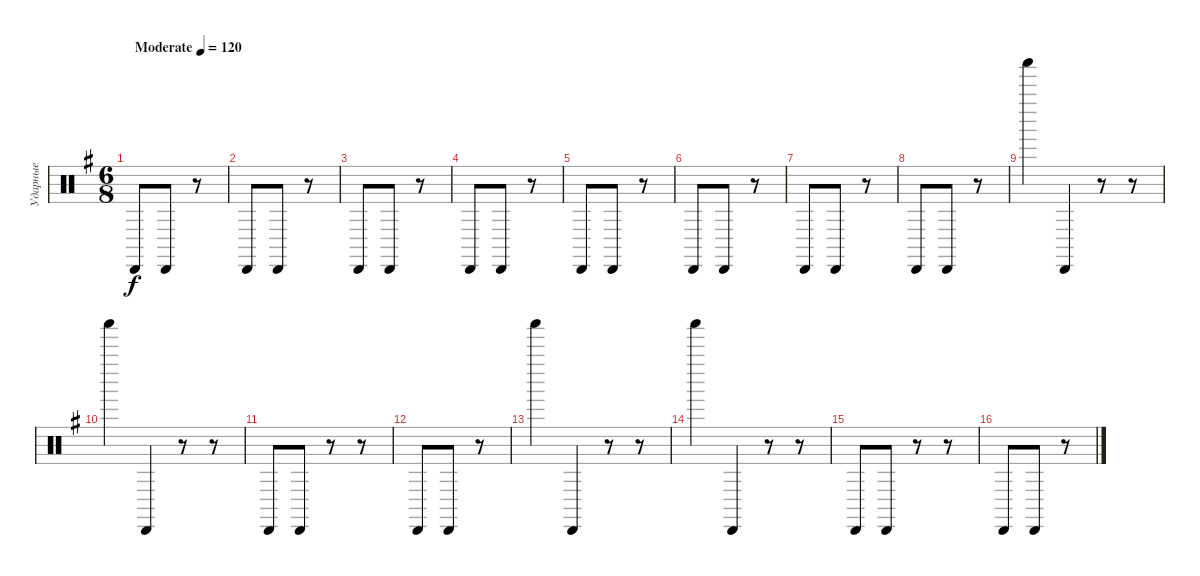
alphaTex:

\track ("Ударные" "Ударные") {instrument percussion}
\staff {score}
\articulation defaults
\ts (6 8)
\tempo (120 "Moderate")
\clef neutral
\ks eminor "Cabasa (hit)".8{dy f} "Cabasa (hit)".8
r.8 |
"Cabasa (hit)".8 "Cabasa (hit)".8 r.8 |
"Cabasa (hit)".8 "Cabasa (hit)".8 r.8 |
"Cabasa (hit)".8 "Cabasa (hit)".8 r.8 |
"Cabasa (hit)".8 "Cabasa (hit)".8 r.8 |
"Cabasa (hit)".8 "Cabasa (hit)".8 r.8 |
"Cabasa (hit)".8 "Cabasa (hit)".8 r.8 |
"Cabasa (hit)".8 "Cabasa (hit)".8 r.8 |
"Shaker (hit)".4 "Cabasa (hit)".4 r.8 r.8 |
"Shaker (hit)".4 "Cabasa (hit)".4 r.8 r.8 |
"Cabasa (hit)".8 "Cabasa (hit)".8 r.8 r.8 |
"Cabasa (hit)".8 "Cabasa (hit)".8 r.8 |
"Shaker (hit)".4 "Cabasa (hit)".4 r.8 r.8 |
"Shaker (hit)".4 "Cabasa (hit)".4 r.8 r.8 |
"Cabasa (hit)".8 "Cabasa (hit)".8 r.8 r.8 |
"Cabasa (hit)".8 "Cabasa (hit)".8 r.8
